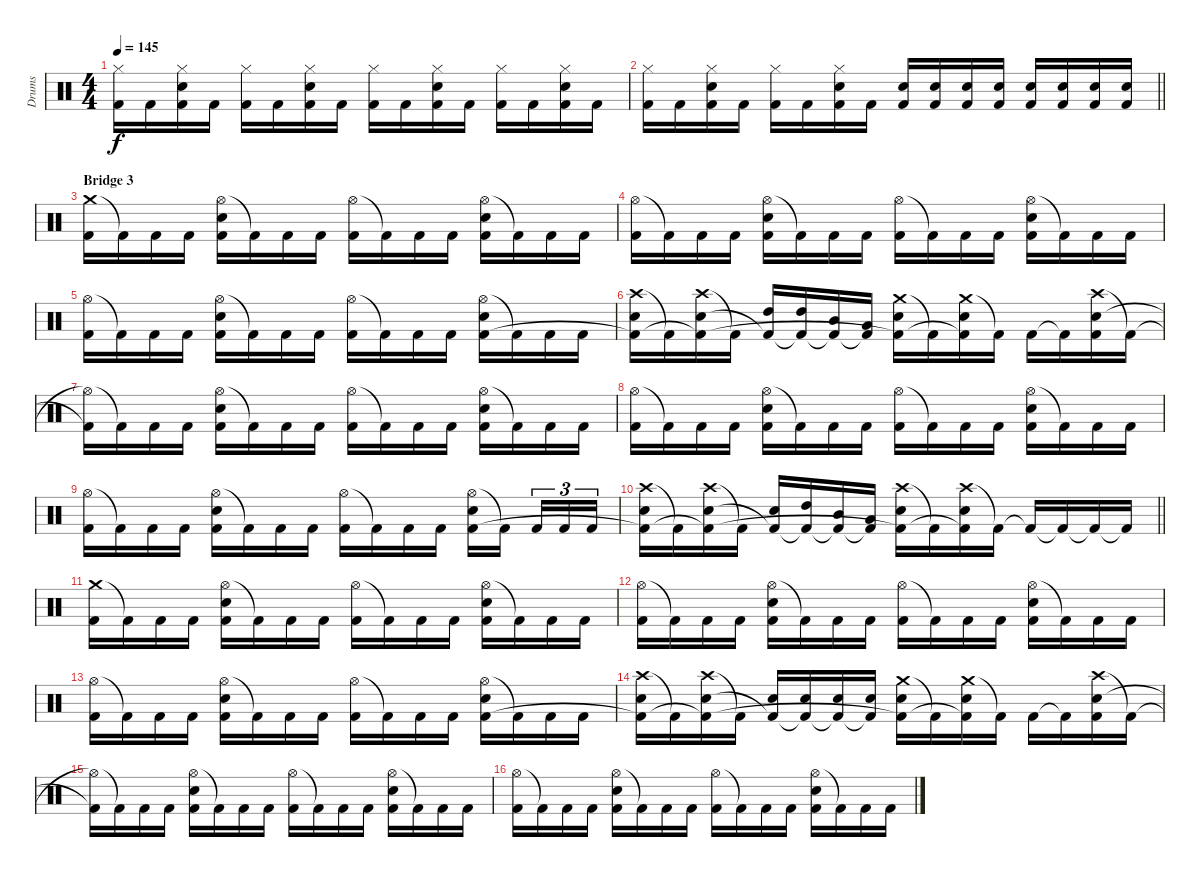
\track ("Drums" "Drums") {instrument percussion}
\staff {score}
\articulation defaults
\ts (4 4)
\tempo 145
\clef neutral
\ks c
("Hi-Hat (closed)" "Kick (hit) 2").16{dy f} "Kick (hit) 2".16 ("Hi-Hat (closed)" "Electric Snare (hit)" "Kick (hit) 2").16 "Kick (hit) 2".16 ("Hi-Hat (closed)" "Kick (hit) 2").16 "Kick (hit) 2".16 ("Hi-Hat (closed)" "Electric Snare (hit)" "Kick (hit) 2").16 "Kick (hit) 2".16 ("Hi-Hat (closed)" "Kick (hit) 2").16 "Kick (hit) 2".16 ("Hi-Hat (closed)" "Electric Snare (hit)" "Kick (hit) 2").16 "Kick (hit) 2".16 ("Hi-Hat (closed)" "Kick (hit) 2").16 "Kick (hit) 2".16 ("Hi-Hat (closed)" "Electric Snare (hit)" "Kick (hit) 2").16 "Kick (hit) 2".16 |
\barLineRight lightlight
("Hi-Hat (closed)" "Kick (hit) 2").16 "Kick (hit) 2".16 ("Hi-Hat (closed)" "Electric Snare (hit)" "Kick (hit) 2").16 "Kick (hit) 2".16 ("Hi-Hat (closed)" "Kick (hit) 2").16 "Kick (hit) 2".16 ("Hi-Hat (closed)" "Electric Snare (hit)" "Kick (hit) 2").16 "Kick (hit) 2".16 ("Electric Snare (hit)" "Kick (hit) 2").16 ("Electric Snare (hit)" "Kick (hit) 2").16 ("Electric Snare (hit)" "Kick (hit) 2").16 ("Electric Snare (hit)" "Kick (hit) 2").16 ("Electric Snare (hit)" "Kick (hit) 2").16 ("Electric Snare (hit)" "Kick (hit) 2").16 ("Electric Snare (hit)" "Kick (hit) 2").16 ("Electric Snare (hit)" "Kick (hit) 2").16 |
\section ("" "Bridge 3")
("Crash medium (hit)" "Kick (hit) 2").16 "Kick (hit) 2"{t}.16 "Kick (hit) 2".16 "Kick (hit) 2".16 ("Hi-Hat (open)" "Electric Snare (hit)" "Kick (hit) 2").16 "Kick (hit) 2"{t}.16 "Kick (hit) 2".16 "Kick (hit) 2".16 ("Hi-Hat (open)" "Kick (hit) 2").16 "Kick (hit) 2"{t}.16 "Kick (hit) 2".16 "Kick (hit) 2".16 ("Hi-Hat (open)" "Electric Snare (hit)" "Kick (hit) 2").16 "Kick (hit) 2"{t}.16 "Kick (hit) 2".16 "Kick (hit) 2".16 |
("Hi-Hat (open)" "Kick (hit) 2").16 "Kick (hit) 2"{t}.16 "Kick (hit) 2".16 "Kick (hit) 2".16 ("Hi-Hat (open)" "Electric Snare (hit)" "Kick (hit) 2").16 "Kick (hit) 2"{t}.16 "Kick (hit) 2".16 "Kick (hit) 2".16 ("Hi-Hat (open)" "Kick (hit) 2").16 "Kick (hit) 2"{t}.16 "Kick (hit) 2".16 "Kick (hit) 2".16 ("Hi-Hat (open)" "Electric Snare (hit)" "Kick (hit) 2").16 "Kick (hit) 2"{t}.16 "Kick (hit) 2".16 "Kick (hit) 2".16 |
("Hi-Hat (open)" "Kick (hit) 2").16 "Kick (hit) 2"{t}.16 "Kick (hit) 2".16 "Kick (hit) 2".16 ("Hi-Hat (open)" "Electric Snare (hit)" "Kick (hit) 2").16 "Kick (hit) 2"{t}.16 "Kick (hit) 2".16 "Kick (hit) 2".16 ("Hi-Hat (open)" "Kick (hit) 2").16 "Kick (hit) 2"{t}.16 "Kick (hit) 2".16 "Kick (hit) 2".16 ("Hi-Hat (open)" "Electric Snare (hit)" "Kick (hit) 2").16 "Kick (hit) 2"{t}.16 "Kick (hit) 2".16 "Kick (hit) 2".16 |
("Crash high (hit)" "Electric Snare (hit)" "Kick (hit) 2"{t}).16 "Kick (hit) 2"{t}.16 ("Crash high (hit)" "Electric Snare (hit)" "Kick (hit) 2"{t}).16 "Kick (hit) 2"{t}.16 ("High Tom (hit)" "Kick (hit) 2"{t}).16 ("High Tom (hit)" "Kick (hit) 2"{t}).16 ("Mid Tom (hit)" "Kick (hit) 2"{t}).16 ("Low Tom (hit)" "Kick (hit) 2"{t}).16 ("Crash medium (hit)" "Electric Snare (hit)" "Kick (hit) 2"{t}).16 "Kick (hit) 2"{t}.16 ("Crash medium (hit)" "Electric Snare (hit)" "Kick (hit) 2"{t}).16 "Kick (hit) 2"{t}.16 "Kick (hit) 2".16 "Kick (hit) 2"{t}.16 ("Crash high (hit)" "Electric Snare (hit)" "Kick (hit) 2").16 "Kick (hit) 2"{t}.16 |
("Hi-Hat (open)"{t} "Kick (hit) 2"{t}).16 "Kick (hit) 2"{t}.16 "Kick (hit) 2".16 "Kick (hit) 2".16 ("Hi-Hat (open)" "Electric Snare (hit)" "Kick (hit) 2").16 "Kick (hit) 2"{t}.16 "Kick (hit) 2".16 "Kick (hit) 2".16 ("Hi-Hat (open)" "Kick (hit) 2").16 "Kick (hit) 2"{t}.16 "Kick (hit) 2".16 "Kick (hit) 2".16 ("Hi-Hat (open)" "Electric Snare (hit)" "Kick (hit) 2").16 "Kick (hit) 2"{t}.16 "Kick (hit) 2".16 "Kick (hit) 2".16 |
("Hi-Hat (open)" "Kick (hit) 2").16 "Kick (hit) 2"{t}.16 "Kick (hit) 2".16 "Kick (hit) 2".16 ("Hi-Hat (open)" "Electric Snare (hit)" "Kick (hit) 2").16 "Kick (hit) 2"{t}.16 "Kick (hit) 2".16 "Kick (hit) 2".16 ("Hi-Hat (open)" "Kick (hit) 2").16 "Kick (hit) 2"{t}.16 "Kick (hit) 2".16 "Kick (hit) 2".16 ("Hi-Hat (open)" "Electric Snare (hit)" "Kick (hit) 2").16 "Kick (hit) 2"{t}.16 "Kick (hit) 2".16 "Kick (hit) 2".16 |
("Hi-Hat (open)" "Kick (hit) 2").16 "Kick (hit) 2"{t}.16 "Kick (hit) 2".16 "Kick (hit) 2".16 ("Hi-Hat (open)" "Electric Snare (hit)" "Kick (hit) 2").16 "Kick (hit) 2"{t}.16 "Kick (hit) 2".16 "Kick (hit) 2".16 ("Hi-Hat (open)" "Kick (hit) 2").16 "Kick (hit) 2"{t}.16 "Kick (hit) 2".16 "Kick (hit) 2".16 ("Hi-Hat (open)" "Electric Snare (hit)" "Kick (hit) 2").16 "Kick (hit) 2"{t}.16{beam splitsecondary} "Kick (hit) 2".16{tu (3 2)} "Kick (hit) 2".16{tu (3 2)} "Kick (hit) 2".16{tu (3 2)} |
\barLineRight lightlight
("Crash high (hit)" "Electric Snare (hit)" "Kick (hit) 2"{t}).16 "Kick (hit) 2"{t}.16 ("Crash high (hit)" "Electric Snare (hit)" "Kick (hit) 2"{t}).16 "Kick (hit) 2"{t}.16 ("Electric Snare (hit)" "Kick (hit) 2"{t}).16 ("High Tom (hit)" "Kick (hit) 2"{t}).16 ("Mid Tom (hit)" "Kick (hit) 2"{t}).16 ("Low Tom (hit)" "Kick (hit) 2"{t}).16 ("Crash high (hit)" "Electric Snare (hit)" "Kick (hit) 2"{t}).16 "Kick (hit) 2"{t}.16 ("Crash high (hit)" "Electric Snare (hit)" "Kick (hit) 2"{t}).16 "Kick (hit) 2"{t}.16 "Kick (hit) 2"{t}.16 "Kick (hit) 2"{t}.16 "Kick (hit) 2"{t}.16 "Kick (hit) 2"{t}.16 |
("Crash medium (hit)" "Kick (hit) 2").16 "Kick (hit) 2"{t}.16 "Kick (hit) 2".16 "Kick (hit) 2".16 ("Hi-Hat (open)" "Electric Snare (hit)" "Kick (hit) 2").16 "Kick (hit) 2"{t}.16 "Kick (hit) 2".16 "Kick (hit) 2".16 ("Hi-Hat (open)" "Kick (hit) 2").16 "Kick (hit) 2"{t}.16 "Kick (hit) 2".16 "Kick (hit) 2".16 ("Hi-Hat (open)" "Electric Snare (hit)" "Kick (hit) 2").16 "Kick (hit) 2"{t}.16 "Kick (hit) 2".16 "Kick (hit) 2".16 |
("Hi-Hat (open)" "Kick (hit) 2").16 "Kick (hit) 2"{t}.16 "Kick (hit) 2".16 "Kick (hit) 2".16 ("Hi-Hat (open)" "Electric Snare (hit)" "Kick (hit) 2").16 "Kick (hit) 2"{t}.16 "Kick (hit) 2".16 "Kick (hit) 2".16 ("Hi-Hat (open)" "Kick (hit) 2").16 "Kick (hit) 2"{t}.16 "Kick (hit) 2".16 "Kick (hit) 2".16 ("Hi-Hat (open)" "Electric Snare (hit)" "Kick (hit) 2").16 "Kick (hit) 2"{t}.16 "Kick (hit) 2".16 "Kick (hit) 2".16 |
("Hi-Hat (open)" "Kick (hit) 2").16 "Kick (hit) 2"{t}.16 "Kick (hit) 2".16 "Kick (hit) 2".16 ("Hi-Hat (open)" "Electric Snare (hit)" "Kick (hit) 2").16 "Kick (hit) 2"{t}.16 "Kick (hit) 2".16 "Kick (hit) 2".16 ("Hi-Hat (open)" "Kick (hit) 2").16 "Kick (hit) 2"{t}.16 "Kick (hit) 2".16 "Kick (hit) 2".16 ("Hi-Hat (open)" "Electric Snare (hit)" "Kick (hit) 2").16 "Kick (hit) 2"{t}.16 "Kick (hit) 2".16 "Kick (hit) 2".16 |
("Crash high (hit)" "Electric Snare (hit)" "Kick (hit) 2"{t}).16 "Kick (hit) 2"{t}.16 ("Crash high (hit)" "Electric Snare (hit)" "Kick (hit) 2"{t}).16 "Kick (hit) 2"{t}.16 ("Electric Snare (hit)" "Kick (hit) 2"{t}).16 ("Electric Snare (hit)" "Kick (hit) 2"{t}).16 ("Electric Snare (hit)" "Kick (hit) 2"{t}).16 ("Electric Snare (hit)" "Kick (hit) 2"{t}).16 ("Crash medium (hit)" "Electric Snare (hit)" "Kick (hit) 2"{t}).16 "Kick (hit) 2"{t}.16 ("Crash medium (hit)" "Electric Snare (hit)" "Kick (hit) 2"{t}).16 "Kick (hit) 2"{t}.16 "Kick (hit) 2".16 "Kick (hit) 2"{t}.16 ("Crash high (hit)" "Electric Snare (hit)" "Kick (hit) 2").16 "Kick (hit) 2"{t}.16 |
("Hi-Hat (open)"{t} "Kick (hit) 2"{t}).16 "Kick (hit) 2"{t}.16 "Kick (hit) 2".16 "Kick (hit) 2".16 ("Hi-Hat (open)" "Electric Snare (hit)" "Kick (hit) 2").16 "Kick (hit) 2"{t}.16 "Kick (hit) 2".16 "Kick (hit) 2".16 ("Hi-Hat (open)" "Kick (hit) 2").16 "Kick (hit) 2"{t}.16 "Kick (hit) 2".16 "Kick (hit) 2".16 ("Hi-Hat (open)" "Electric Snare (hit)" "Kick (hit) 2").16 "Kick (hit) 2"{t}.16 "Kick (hit) 2".16 "Kick (hit) 2".16 |
("Hi-Hat (open)" "Kick (hit) 2").16 "Kick (hit) 2"{t}.16 "Kick (hit) 2".16 "Kick (hit) 2".16 ("Hi-Hat (open)" "Electric Snare (hit)" "Kick (hit) 2").16 "Kick (hit) 2"{t}.16 "Kick (hit) 2".16 "Kick (hit) 2".16 ("Hi-Hat (open)" "Kick (hit) 2").16 "Kick (hit) 2"{t}.16 "Kick (hit) 2".16 "Kick (hit) 2".16 ("Hi-Hat (open)" "Electric Snare (hit)" "Kick (hit) 2").16 "Kick (hit) 2"{t}.16 "Kick (hit) 2".16 "Kick (hit) 2".16
